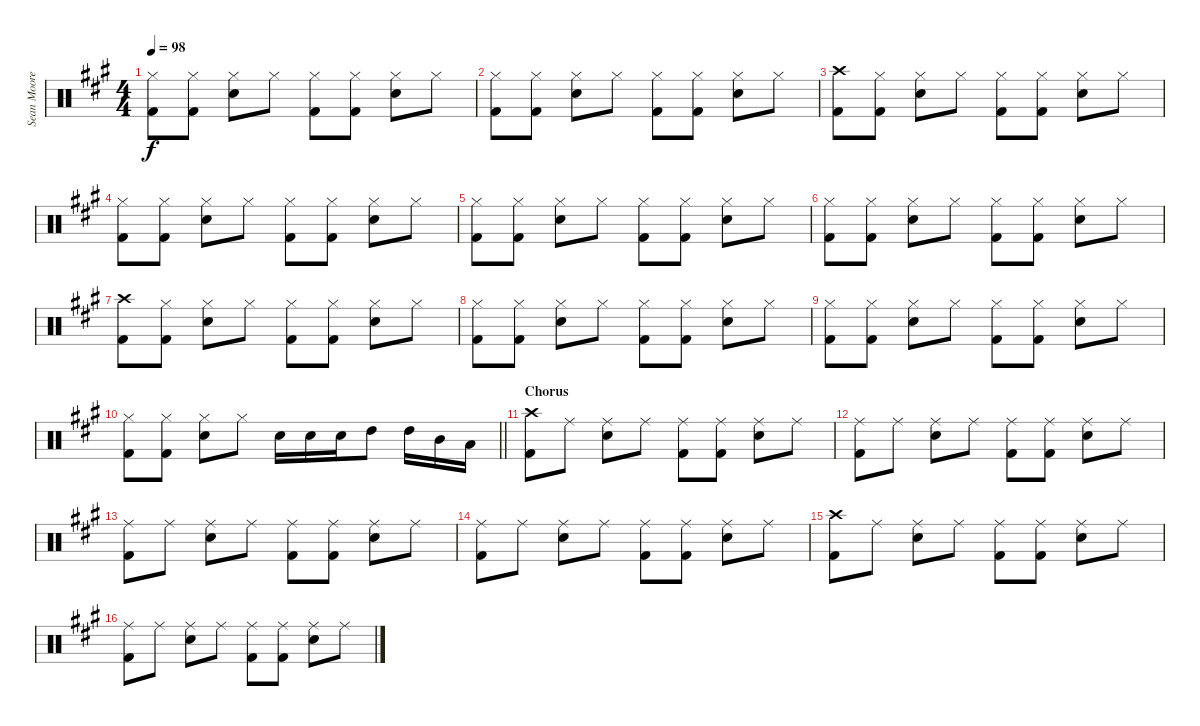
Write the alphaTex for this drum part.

\track ("Sean Moore (Drums)" "Sean Moore") {instrument percussion}
\staff {score}
\articulation defaults
\ts (4 4)
\tempo 98
\clef neutral
\ks a
("Hi-Hat (closed)" "Kick (hit) 2").8{dy f} ("Hi-Hat (closed)" "Kick (hit) 2").8 ("Hi-Hat (closed)" "Electric Snare (hit)").8 "Hi-Hat (closed)".8 ("Hi-Hat (closed)" "Kick (hit) 2").8 ("Hi-Hat (closed)" "Kick (hit) 2").8 ("Hi-Hat (closed)" "Electric Snare (hit)").8 "Hi-Hat (closed)".8 |
("Hi-Hat (closed)" "Kick (hit) 2").8 ("Hi-Hat (closed)" "Kick (hit) 2").8 ("Hi-Hat (closed)" "Electric Snare (hit)").8 "Hi-Hat (closed)".8 ("Hi-Hat (closed)" "Kick (hit) 2").8 ("Hi-Hat (closed)" "Kick (hit) 2").8 ("Hi-Hat (closed)" "Electric Snare (hit)").8 "Hi-Hat (closed)".8 |
("Crash high (hit)" "Kick (hit) 2").8 ("Hi-Hat (closed)" "Kick (hit) 2").8 ("Hi-Hat (closed)" "Electric Snare (hit)").8 "Hi-Hat (closed)".8 ("Hi-Hat (closed)" "Kick (hit) 2").8 ("Hi-Hat (closed)" "Kick (hit) 2").8 ("Hi-Hat (closed)" "Electric Snare (hit)").8 "Hi-Hat (closed)".8 |
("Hi-Hat (closed)" "Kick (hit) 2").8 ("Hi-Hat (closed)" "Kick (hit) 2").8 ("Hi-Hat (closed)" "Electric Snare (hit)").8 "Hi-Hat (closed)".8 ("Hi-Hat (closed)" "Kick (hit) 2").8 ("Hi-Hat (closed)" "Kick (hit) 2").8 ("Hi-Hat (closed)" "Electric Snare (hit)").8 "Hi-Hat (closed)".8 |
("Hi-Hat (closed)" "Kick (hit) 2").8 ("Hi-Hat (closed)" "Kick (hit) 2").8 ("Hi-Hat (closed)" "Electric Snare (hit)").8 "Hi-Hat (closed)".8 ("Hi-Hat (closed)" "Kick (hit) 2").8 ("Hi-Hat (closed)" "Kick (hit) 2").8 ("Hi-Hat (closed)" "Electric Snare (hit)").8 "Hi-Hat (closed)".8 |
("Hi-Hat (closed)" "Kick (hit) 2").8 ("Hi-Hat (closed)" "Kick (hit) 2").8 ("Hi-Hat (closed)" "Electric Snare (hit)").8 "Hi-Hat (closed)".8 ("Hi-Hat (closed)" "Kick (hit) 2").8 ("Hi-Hat (closed)" "Kick (hit) 2").8 ("Hi-Hat (closed)" "Electric Snare (hit)").8 "Hi-Hat (closed)".8 |
("Crash high (hit)" "Kick (hit) 2").8 ("Hi-Hat (closed)" "Kick (hit) 2").8 ("Hi-Hat (closed)" "Electric Snare (hit)").8 "Hi-Hat (closed)".8 ("Hi-Hat (closed)" "Kick (hit) 2").8 ("Hi-Hat (closed)" "Kick (hit) 2").8 ("Hi-Hat (closed)" "Electric Snare (hit)").8 "Hi-Hat (closed)".8 |
("Hi-Hat (closed)" "Kick (hit) 2").8 ("Hi-Hat (closed)" "Kick (hit) 2").8 ("Hi-Hat (closed)" "Electric Snare (hit)").8 "Hi-Hat (closed)".8 ("Hi-Hat (closed)" "Kick (hit) 2").8 ("Hi-Hat (closed)" "Kick (hit) 2").8 ("Hi-Hat (closed)" "Electric Snare (hit)").8 "Hi-Hat (closed)".8 |
("Hi-Hat (closed)" "Kick (hit) 2").8 ("Hi-Hat (closed)" "Kick (hit) 2").8 ("Hi-Hat (closed)" "Electric Snare (hit)").8 "Hi-Hat (closed)".8 ("Hi-Hat (closed)" "Kick (hit) 2").8 ("Hi-Hat (closed)" "Kick (hit) 2").8 ("Hi-Hat (closed)" "Electric Snare (hit)").8 "Hi-Hat (closed)".8 |
\barLineRight lightlight
("Hi-Hat (closed)" "Kick (hit) 2").8 ("Hi-Hat (closed)" "Kick (hit) 2").8 ("Hi-Hat (closed)" "Electric Snare (hit)").8 "Hi-Hat (closed)".8 "Electric Snare (hit)".16 "Electric Snare (hit)".16 "Electric Snare (hit)".16 "High Tom (hit)".8 "High Tom (hit)".16 "Mid Tom (hit)".16 "Low Tom (hit)".16 |
\section ("" "Chorus")
("Crash high (hit)" "Kick (hit) 2").8 "Ride (middle)".8 ("Ride (middle)" "Electric Snare (hit)").8 "Ride (middle)".8 ("Ride (middle)" "Kick (hit) 2").8 ("Ride (middle)" "Kick (hit) 2").8 ("Ride (middle)" "Electric Snare (hit)").8 "Ride (middle)".8 |
("Ride (middle)" "Kick (hit) 2").8 "Ride (middle)".8 ("Ride (middle)" "Electric Snare (hit)").8 "Ride (middle)".8 ("Ride (middle)" "Kick (hit) 2").8 ("Ride (middle)" "Kick (hit) 2").8 ("Ride (middle)" "Electric Snare (hit)").8 "Ride (middle)".8 |
("Ride (middle)" "Kick (hit) 2").8 "Ride (middle)".8 ("Ride (middle)" "Electric Snare (hit)").8 "Ride (middle)".8 ("Ride (middle)" "Kick (hit) 2").8 ("Ride (middle)" "Kick (hit) 2").8 ("Ride (middle)" "Electric Snare (hit)").8 "Ride (middle)".8 |
("Ride (middle)" "Kick (hit) 2").8 "Ride (middle)".8 ("Ride (middle)" "Electric Snare (hit)").8 "Ride (middle)".8 ("Ride (middle)" "Kick (hit) 2").8 ("Ride (middle)" "Kick (hit) 2").8 ("Ride (middle)" "Electric Snare (hit)").8 "Ride (middle)".8 |
("Crash high (hit)" "Kick (hit) 2").8 "Ride (middle)".8 ("Ride (middle)" "Electric Snare (hit)").8 "Ride (middle)".8 ("Ride (middle)" "Kick (hit) 2").8 ("Ride (middle)" "Kick (hit) 2").8 ("Ride (middle)" "Electric Snare (hit)").8 "Ride (middle)".8 |
("Ride (middle)" "Kick (hit) 2").8 "Ride (middle)".8 ("Ride (middle)" "Electric Snare (hit)").8 "Ride (middle)".8 ("Ride (middle)" "Kick (hit) 2").8 ("Ride (middle)" "Kick (hit) 2").8 ("Ride (middle)" "Electric Snare (hit)").8 "Ride (middle)".8
